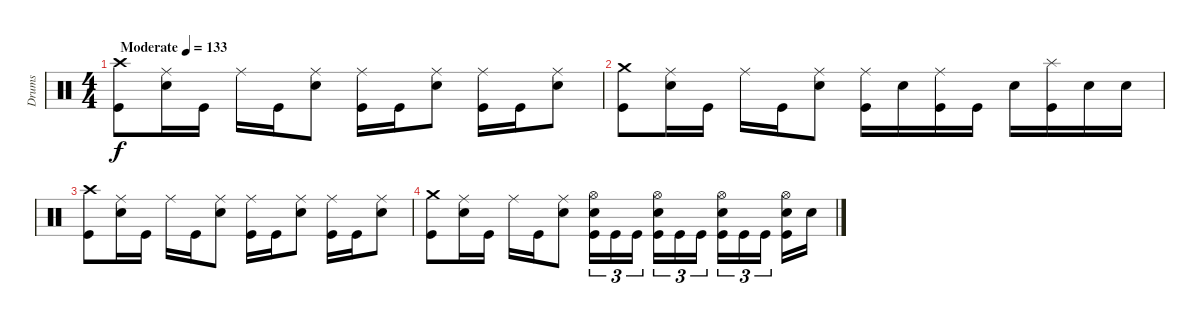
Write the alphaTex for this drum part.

\track ("Drums" "Drums") {instrument percussion}
\staff {score}
\articulation defaults
\ts (4 4)
\tempo (133 "Moderate")
\clef neutral
\ks c
("Crash high (hit)" "Kick (hit)").8{dy f} ("Ride (middle)" "Electric Snare (hit)").16 "Kick (hit)".16 "Ride (middle)".16 "Kick (hit)".16 ("Ride (middle)" "Electric Snare (hit)").8 ("Ride (middle)" "Kick (hit)").16 "Kick (hit)".16 ("Ride (middle)" "Electric Snare (hit)").8 ("Ride (middle)" "Kick (hit)").16 "Kick (hit)".16 ("Ride (middle)" "Electric Snare (hit)").8 |
("Crash medium (hit)" "Kick (hit)").8 ("Ride (middle)" "Electric Snare (hit)").16 "Kick (hit)".16 "Ride (middle)".16 "Kick (hit)".16 ("Ride (middle)" "Electric Snare (hit)").8 ("Ride (middle)" "Kick (hit)").16 "Electric Snare (hit)".16 ("Ride (middle)" "Kick (hit)").16 "Kick (hit)".16 "Electric Snare (hit)".16 ("Splash (hit)" "Kick (hit)").16 "Electric Snare (hit)".16 "Electric Snare (hit)".16 |
("Crash high (hit)" "Kick (hit)").8 ("Ride (middle)" "Electric Snare (hit)").16 "Kick (hit)".16 "Ride (middle)".16 "Kick (hit)".16 ("Ride (middle)" "Electric Snare (hit)").8 ("Ride (middle)" "Kick (hit)").16 "Kick (hit)".16 ("Ride (middle)" "Electric Snare (hit)").8 ("Ride (middle)" "Kick (hit)").16 "Kick (hit)".16 ("Ride (middle)" "Electric Snare (hit)").8 |
("Crash medium (hit)" "Kick (hit)").8 ("Ride (middle)" "Electric Snare (hit)").16 "Kick (hit)".16 "Ride (middle)".16 "Kick (hit)".16 ("Ride (middle)" "Electric Snare (hit)").8 ("Hi-Hat (open)" "Electric Snare (hit)" "Kick (hit)").16{tu (3 2)} "Kick (hit)".16{tu (3 2)} "Kick (hit)".16{tu (3 2) beam splitsecondary} ("Hi-Hat (open)" "Electric Snare (hit)" "Kick (hit)").16{tu (3 2)} "Kick (hit)".16{tu (3 2)} "Kick (hit)".16{tu (3 2)} ("Hi-Hat (open)" "Electric Snare (hit)" "Kick (hit)").16{tu (3 2)} "Kick (hit)".16{tu (3 2)} "Kick (hit)".16{tu (3 2) beam splitsecondary} ("Hi-Hat (open)" "Electric Snare (hit)" "Kick (hit)").16 "Electric Snare (hit)".16
